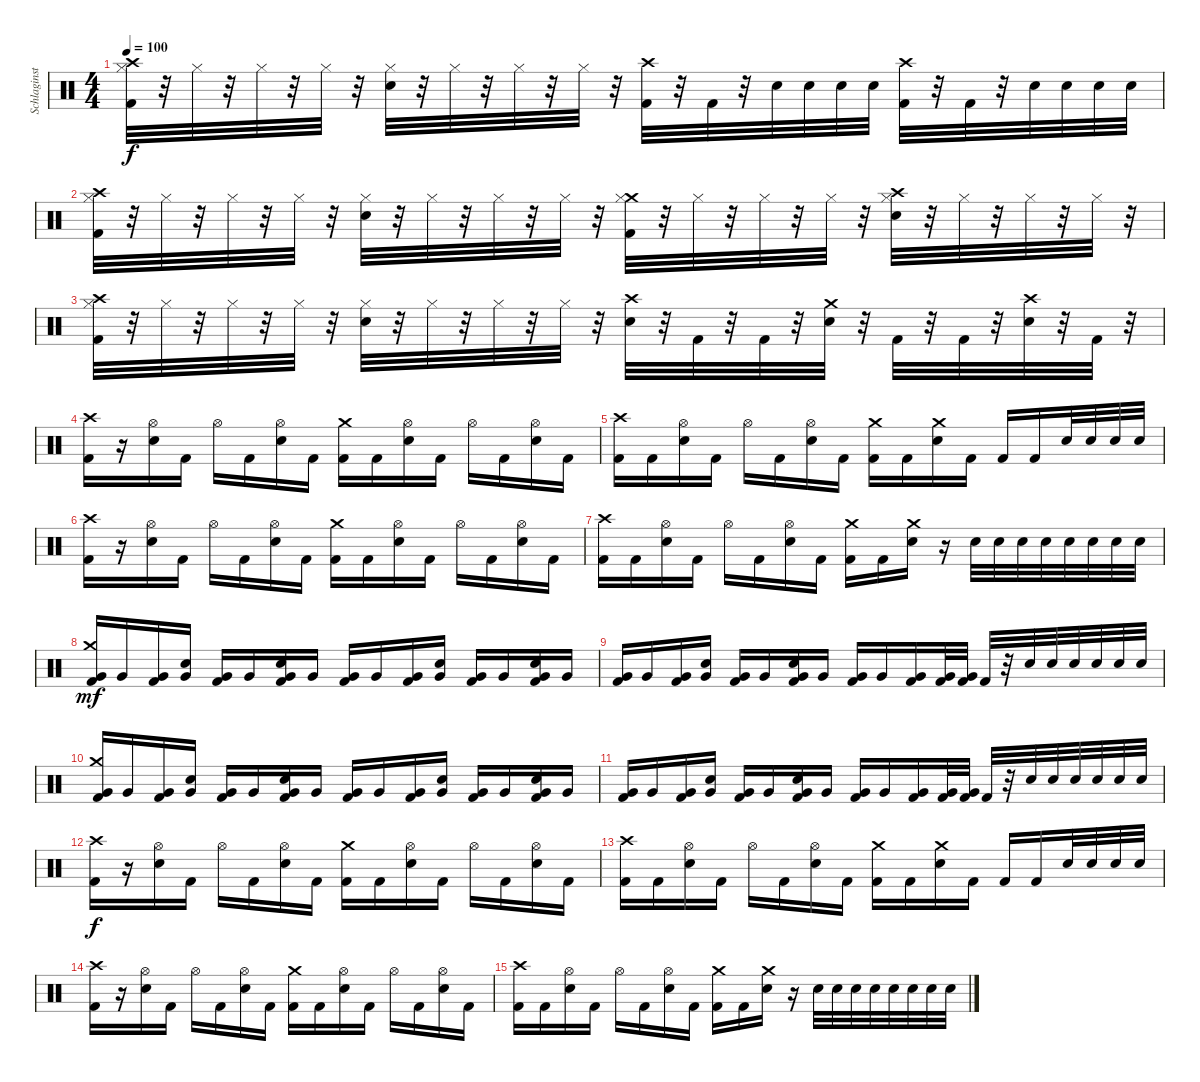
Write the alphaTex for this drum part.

\track ("Schlaginstrumente - Auswahl" "Schlaginst") {instrument percussion}
\staff {score}
\articulation defaults
\ts (4 4)
\tempo 100
\clef neutral
\ks c
("Crash high (hit)" "Hi-Hat (closed)" "Kick (hit) 2").32{dy f} r.32 "Hi-Hat (closed)".32 r.32 "Hi-Hat (closed)".32 r.32 "Hi-Hat (closed)".32 r.32 ("Hi-Hat (closed)" "Electric Snare (hit)").32 r.32 "Hi-Hat (closed)".32 r.32 "Hi-Hat (closed)".32 r.32 "Hi-Hat (closed)".32 r.32 ("Crash high (hit)" "Kick (hit) 2").32 r.32 "Kick (hit) 2".32 r.32 "Electric Snare (hit)".32 "Electric Snare (hit)".32 "Electric Snare (hit)".32 "Electric Snare (hit)".32 ("Crash high (hit)" "Kick (hit) 2").32 r.32 "Kick (hit) 2".32 r.32 "Electric Snare (hit)".32 "Electric Snare (hit)".32 "Electric Snare (hit)".32 "Electric Snare (hit)".32 |
("Crash high (hit)" "Hi-Hat (closed)" "Kick (hit) 2").32 r.32 "Hi-Hat (closed)".32 r.32 "Hi-Hat (closed)".32 r.32 "Hi-Hat (closed)".32 r.32 ("Hi-Hat (closed)" "Electric Snare (hit)").32 r.32 "Hi-Hat (closed)".32 r.32 "Hi-Hat (closed)".32 r.32 "Hi-Hat (closed)".32 r.32 ("Crash medium (hit)" "Hi-Hat (closed)" "Kick (hit) 2").32 r.32 "Hi-Hat (closed)".32 r.32 "Hi-Hat (closed)".32 r.32 "Hi-Hat (closed)".32 r.32 ("Crash high (hit)" "Hi-Hat (closed)" "Electric Snare (hit)").32 r.32 "Hi-Hat (closed)".32 r.32 "Hi-Hat (closed)".32 r.32 "Hi-Hat (closed)".32 r.32 |
("Crash high (hit)" "Hi-Hat (closed)" "Kick (hit) 2").32 r.32 "Hi-Hat (closed)".32 r.32 "Hi-Hat (closed)".32 r.32 "Hi-Hat (closed)".32 r.32 ("Hi-Hat (closed)" "Electric Snare (hit)").32 r.32 "Hi-Hat (closed)".32 r.32 "Hi-Hat (closed)".32 r.32 "Hi-Hat (closed)".32 r.32 ("Crash high (hit)" "Electric Snare (hit)").32 r.32 "Kick (hit) 2".32 r.32 "Kick (hit) 2".32 r.32 ("Crash medium (hit)" "Electric Snare (hit)").32 r.32 "Kick (hit) 2".32 r.32 "Kick (hit) 2".32 r.32 ("Crash high (hit)" "Electric Snare (hit)").32 r.32 "Kick (hit) 2".32 r.32 |
("Crash high (hit)" "Kick (hit) 2").16 r.16 ("Hi-Hat (open)" "Electric Snare (hit)").16 "Kick (hit) 2".16 "Hi-Hat (open)".16 "Kick (hit) 2".16 ("Hi-Hat (open)" "Electric Snare (hit)").16 "Kick (hit) 2".16 ("Crash medium (hit)" "Kick (hit) 2").16 "Kick (hit) 2".16 ("Hi-Hat (open)" "Electric Snare (hit)").16 "Kick (hit) 2".16 "Hi-Hat (open)".16 "Kick (hit) 2".16 ("Hi-Hat (open)" "Electric Snare (hit)").16 "Kick (hit) 2".16 |
("Crash high (hit)" "Kick (hit) 2").16 "Kick (hit) 2".16 ("Hi-Hat (open)" "Electric Snare (hit)").16 "Kick (hit) 2".16 "Hi-Hat (open)".16 "Kick (hit) 2".16 ("Hi-Hat (open)" "Electric Snare (hit)").16 "Kick (hit) 2".16 ("Crash medium (hit)" "Kick (hit) 2").16 "Kick (hit) 2".16 ("Crash medium (hit)" "Electric Snare (hit)").16 "Kick (hit) 2".16 "Kick (hit) 2".16 "Kick (hit) 2".16 "Electric Snare (hit)".32 "Electric Snare (hit)".32 "Electric Snare (hit)".32 "Electric Snare (hit)".32 |
("Crash high (hit)" "Kick (hit) 2").16 r.16 ("Hi-Hat (open)" "Electric Snare (hit)").16 "Kick (hit) 2".16 "Hi-Hat (open)".16 "Kick (hit) 2".16 ("Hi-Hat (open)" "Electric Snare (hit)").16 "Kick (hit) 2".16 ("Crash medium (hit)" "Kick (hit) 2").16 "Kick (hit) 2".16 ("Hi-Hat (open)" "Electric Snare (hit)").16 "Kick (hit) 2".16 "Hi-Hat (open)".16 "Kick (hit) 2".16 ("Hi-Hat (open)" "Electric Snare (hit)").16 "Kick (hit) 2".16 |
("Crash high (hit)" "Kick (hit) 2").16 "Kick (hit) 2".16 ("Hi-Hat (open)" "Electric Snare (hit)").16 "Kick (hit) 2".16 "Hi-Hat (open)".16 "Kick (hit) 2".16 ("Hi-Hat (open)" "Electric Snare (hit)").16 "Kick (hit) 2".16 ("Crash medium (hit)" "Kick (hit) 2").16 "Kick (hit) 2".16 ("Crash medium (hit)" "Electric Snare (hit)").16 r.16 "Electric Snare (hit)".32 "Electric Snare (hit)".32 "Electric Snare (hit)".32 "Electric Snare (hit)".32 "Electric Snare (hit)".32 "Electric Snare (hit)".32 "Electric Snare (hit)".32 "Electric Snare (hit)".32 |
("Very Low Tom (hit)" "Crash medium (hit)" "Kick (hit) 2").16{dy mf} "Very Low Tom (hit)".16 ("Very Low Tom (hit)" "Kick (hit) 2").16 ("Very Low Tom (hit)" "Electric Snare (hit)").16 ("Very Low Tom (hit)" "Kick (hit) 2").16 "Very Low Tom (hit)".16 ("Very Low Tom (hit)" "Electric Snare (hit)" "Kick (hit) 2").16 "Very Low Tom (hit)".16 ("Very Low Tom (hit)" "Kick (hit) 2").16 "Very Low Tom (hit)".16 ("Very Low Tom (hit)" "Kick (hit) 2").16 ("Very Low Tom (hit)" "Electric Snare (hit)").16 ("Very Low Tom (hit)" "Kick (hit) 2").16 "Very Low Tom (hit)".16 ("Very Low Tom (hit)" "Electric Snare (hit)" "Kick (hit) 2").16 "Very Low Tom (hit)".16 |
("Very Low Tom (hit)" "Kick (hit) 2").16 "Very Low Tom (hit)".16 ("Very Low Tom (hit)" "Kick (hit) 2").16 ("Very Low Tom (hit)" "Electric Snare (hit)").16 ("Very Low Tom (hit)" "Kick (hit) 2").16 "Very Low Tom (hit)".16 ("Very Low Tom (hit)" "Electric Snare (hit)" "Kick (hit) 2").16 "Very Low Tom (hit)".16 ("Very Low Tom (hit)" "Kick (hit) 2").16 "Very Low Tom (hit)".16 ("Very Low Tom (hit)" "Kick (hit) 2").16 ("Very Low Tom (hit)" "Kick (hit) 2").32 ("Very Low Tom (hit)" "Kick (hit) 2").32 "Kick (hit) 2".32 r.32 "Electric Snare (hit)".32 "Electric Snare (hit)".32 "Electric Snare (hit)".32 "Electric Snare (hit)".32 "Electric Snare (hit)".32 "Electric Snare (hit)".32 |
("Very Low Tom (hit)" "Crash medium (hit)" "Kick (hit) 2").16 "Very Low Tom (hit)".16 ("Very Low Tom (hit)" "Kick (hit) 2").16 ("Very Low Tom (hit)" "Electric Snare (hit)").16 ("Very Low Tom (hit)" "Kick (hit) 2").16 "Very Low Tom (hit)".16 ("Very Low Tom (hit)" "Electric Snare (hit)" "Kick (hit) 2").16 "Very Low Tom (hit)".16 ("Very Low Tom (hit)" "Kick (hit) 2").16 "Very Low Tom (hit)".16 ("Very Low Tom (hit)" "Kick (hit) 2").16 ("Very Low Tom (hit)" "Electric Snare (hit)").16 ("Very Low Tom (hit)" "Kick (hit) 2").16 "Very Low Tom (hit)".16 ("Very Low Tom (hit)" "Electric Snare (hit)" "Kick (hit) 2").16 "Very Low Tom (hit)".16 |
("Very Low Tom (hit)" "Kick (hit) 2").16 "Very Low Tom (hit)".16 ("Very Low Tom (hit)" "Kick (hit) 2").16 ("Very Low Tom (hit)" "Electric Snare (hit)").16 ("Very Low Tom (hit)" "Kick (hit) 2").16 "Very Low Tom (hit)".16 ("Very Low Tom (hit)" "Electric Snare (hit)" "Kick (hit) 2").16 "Very Low Tom (hit)".16 ("Very Low Tom (hit)" "Kick (hit) 2").16 "Very Low Tom (hit)".16 ("Very Low Tom (hit)" "Kick (hit) 2").16 ("Very Low Tom (hit)" "Kick (hit) 2").32 ("Very Low Tom (hit)" "Kick (hit) 2").32 "Kick (hit) 2".32 r.32 "Electric Snare (hit)".32 "Electric Snare (hit)".32 "Electric Snare (hit)".32 "Electric Snare (hit)".32 "Electric Snare (hit)".32 "Electric Snare (hit)".32 |
("Crash high (hit)" "Kick (hit) 2").16{dy f} r.16 ("Hi-Hat (open)" "Electric Snare (hit)").16 "Kick (hit) 2".16 "Hi-Hat (open)".16 "Kick (hit) 2".16 ("Hi-Hat (open)" "Electric Snare (hit)").16 "Kick (hit) 2".16 ("Crash medium (hit)" "Kick (hit) 2").16 "Kick (hit) 2".16 ("Hi-Hat (open)" "Electric Snare (hit)").16 "Kick (hit) 2".16 "Hi-Hat (open)".16 "Kick (hit) 2".16 ("Hi-Hat (open)" "Electric Snare (hit)").16 "Kick (hit) 2".16 |
("Crash high (hit)" "Kick (hit) 2").16 "Kick (hit) 2".16 ("Hi-Hat (open)" "Electric Snare (hit)").16 "Kick (hit) 2".16 "Hi-Hat (open)".16 "Kick (hit) 2".16 ("Hi-Hat (open)" "Electric Snare (hit)").16 "Kick (hit) 2".16 ("Crash medium (hit)" "Kick (hit) 2").16 "Kick (hit) 2".16 ("Crash medium (hit)" "Electric Snare (hit)").16 "Kick (hit) 2".16 "Kick (hit) 2".16 "Kick (hit) 2".16 "Electric Snare (hit)".32 "Electric Snare (hit)".32 "Electric Snare (hit)".32 "Electric Snare (hit)".32 |
("Crash high (hit)" "Kick (hit) 2").16 r.16 ("Hi-Hat (open)" "Electric Snare (hit)").16 "Kick (hit) 2".16 "Hi-Hat (open)".16 "Kick (hit) 2".16 ("Hi-Hat (open)" "Electric Snare (hit)").16 "Kick (hit) 2".16 ("Crash medium (hit)" "Kick (hit) 2").16 "Kick (hit) 2".16 ("Hi-Hat (open)" "Electric Snare (hit)").16 "Kick (hit) 2".16 "Hi-Hat (open)".16 "Kick (hit) 2".16 ("Hi-Hat (open)" "Electric Snare (hit)").16 "Kick (hit) 2".16 |
("Crash high (hit)" "Kick (hit) 2").16 "Kick (hit) 2".16 ("Hi-Hat (open)" "Electric Snare (hit)").16 "Kick (hit) 2".16 "Hi-Hat (open)".16 "Kick (hit) 2".16 ("Hi-Hat (open)" "Electric Snare (hit)").16 "Kick (hit) 2".16 ("Crash medium (hit)" "Kick (hit) 2").16 "Kick (hit) 2".16 ("Crash medium (hit)" "Electric Snare (hit)").16 r.16 "Electric Snare (hit)".32 "Electric Snare (hit)".32 "Electric Snare (hit)".32 "Electric Snare (hit)".32 "Electric Snare (hit)".32 "Electric Snare (hit)".32 "Electric Snare (hit)".32 "Electric Snare (hit)".32
